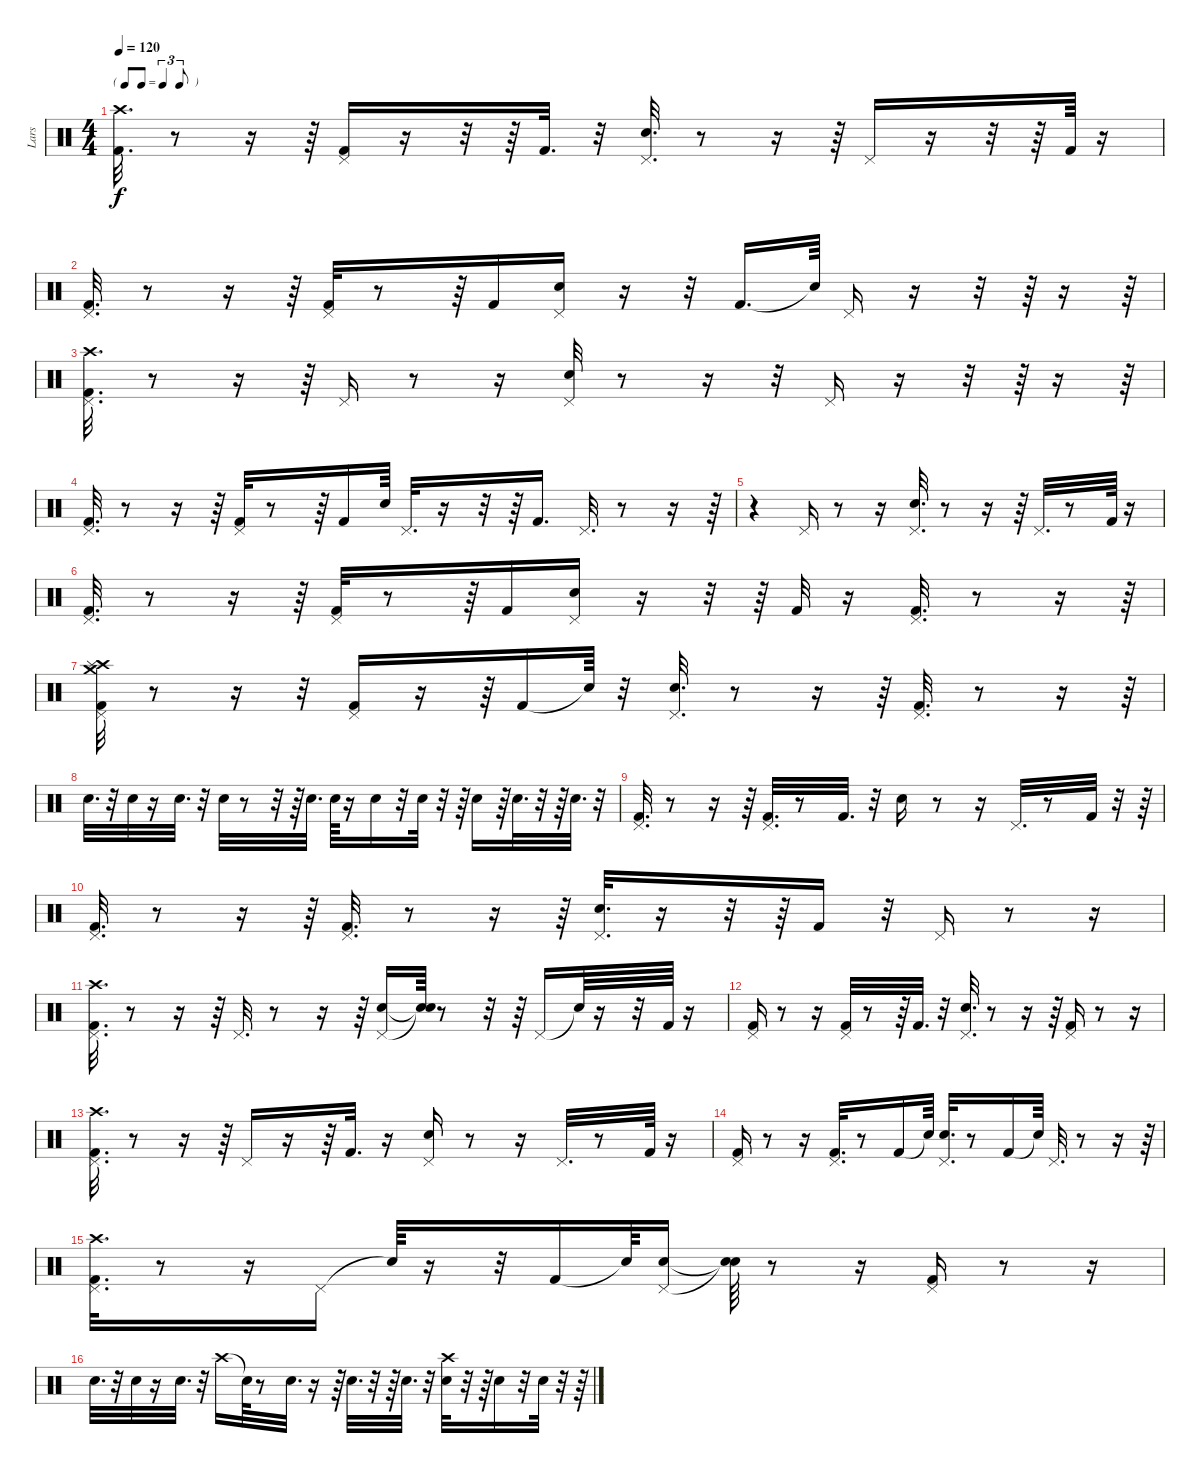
\track ("Lars" "Lars") {instrument percussion}
\staff {score}
\articulation defaults
\ts (4 4)
\tf triplet8th
\tempo 120
\clef neutral
\ks c
("Crash high (hit)" "Kick (hit) 2").32{d dy f} r.8 r.16 r.64 ("Kick (hit) 2" "Pedal Hi-Hat (hit)").16 r.16 r.32 r.64 "Kick (hit) 2".32{d} r.32 ("Pedal Hi-Hat (hit)" "Electric Snare (hit)").32{d} r.8 r.16 r.64 "Pedal Hi-Hat (hit)".16 r.16 r.32 r.64 "Kick (hit) 2".64 r.16 |
("Kick (hit) 2" "Pedal Hi-Hat (hit)").32{d} r.8 r.16 r.64 ("Pedal Hi-Hat (hit)" "Kick (hit) 2").32 r.8 r.64 "Kick (hit) 2".16 ("Pedal Hi-Hat (hit)" "Electric Snare (hit)").16 r.16 r.32 "Kick (hit) 2".16{d} "Snare (hit)"{t}.64 "Pedal Hi-Hat (hit)".16 r.16 r.32 r.64 r.16 r.64 |
("Kick (hit) 2" "Pedal Hi-Hat (hit)" "Crash high (hit)").32{d} r.8 r.16 r.64 "Pedal Hi-Hat (hit)".16 r.8 r.16 ("Pedal Hi-Hat (hit)" "Electric Snare (hit)").32 r.8 r.16 r.32 "Pedal Hi-Hat (hit)".16 r.16 r.32 r.64 r.16 r.64 |
("Pedal Hi-Hat (hit)" "Kick (hit) 2").32{d} r.8 r.16 r.64 ("Kick (hit) 2" "Pedal Hi-Hat (hit)").32 r.8 r.64 "Kick (hit) 2".16 "Electric Snare (hit)".64 "Pedal Hi-Hat (hit)".32{d} r.16 r.32 r.64 "Kick (hit) 2".16{d} "Pedal Hi-Hat (hit)".32{d} r.8 r.16 r.64 |
r.4 "Pedal Hi-Hat (hit)".16 r.8 r.16 ("Pedal Hi-Hat (hit)" "Electric Snare (hit)").32{d} r.8 r.16 r.64 "Pedal Hi-Hat (hit)".32{d} r.8 "Kick (hit) 2".64 r.16 |
("Pedal Hi-Hat (hit)" "Kick (hit) 2").32{d} r.8 r.16 r.64 ("Pedal Hi-Hat (hit)" "Kick (hit) 2").32 r.8 r.64 "Kick (hit) 2".16 ("Electric Snare (hit)" "Pedal Hi-Hat (hit)").16 r.16 r.32 r.64 "Kick (hit) 2".32 r.16 ("Pedal Hi-Hat (hit)" "Kick (hit) 2").32{d} r.8 r.16 r.64 |
("Crash high (hit)" "Kick (hit) 2" "Pedal Hi-Hat (hit)" "Splash (hit)" "Crash medium (hit)").32 r.8 r.16 r.32 ("Pedal Hi-Hat (hit)" "Kick (hit) 2").16 r.16 r.64 "Kick (hit) 2".16 "Snare (hit)"{t}.64 r.32 ("Pedal Hi-Hat (hit)" "Electric Snare (hit)").32{d} r.8 r.16 r.64 ("Kick (hit) 2" "Pedal Hi-Hat (hit)").32{d} r.8 r.16 r.64 |
"Snare (hit) 2".32{d} r.32 "Snare (hit) 2".32 r.16 "Snare (hit) 2".32{d} r.32 "Snare (hit) 2".32 r.8 r.32 r.64 "Electric Snare (hit)".32{d} "Electric Snare (hit)".64 r.16 "Electric Snare (hit)".16 r.32 "Electric Snare (hit)".32 r.32 r.64 "Electric Snare (hit)".16 r.64 "Electric Snare (hit)".32{d} r.32 r.64 "Electric Snare (hit)".32{d} r.32 |
("Kick (hit) 2" "Pedal Hi-Hat (hit)").32{d} r.8 r.16 r.64 ("Kick (hit) 2" "Pedal Hi-Hat (hit)").32{d} r.8 "Kick (hit) 2".32{d} r.32 "Electric Snare (hit)".16 r.8 r.16 "Pedal Hi-Hat (hit)".32{d} r.8 "Kick (hit) 2".32 r.32 r.64 |
("Kick (hit) 2" "Pedal Hi-Hat (hit)").32{d} r.8 r.16 r.64 ("Kick (hit) 2" "Pedal Hi-Hat (hit)").32{d} r.8 r.16 r.64 ("Electric Snare (hit)" "Pedal Hi-Hat (hit)").32{d} r.16 r.32 r.64 "Kick (hit) 2".16 r.32 "Pedal Hi-Hat (hit)".16 r.8 r.16 |
("Kick (hit) 2" "Pedal Hi-Hat (hit)" "Crash high (hit)").32{d} r.8 r.16 r.64 "Pedal Hi-Hat (hit)".32{d} r.8 r.16 r.64 ("Pedal Hi-Hat (hit)" "Electric Snare (hit)").16 ("Snare (hit)"{t} "Snare (hit)"{t}).64 r.8 r.32 r.64 "Pedal Hi-Hat (hit)".16 "Snare (hit)"{t}.64 r.16 r.32 "Kick (hit) 2".64 r.16 |
("Kick (hit) 2" "Pedal Hi-Hat (hit)").16 r.8 r.16 ("Kick (hit) 2" "Pedal Hi-Hat (hit)").32 r.8 r.64 "Kick (hit) 2".32{d} r.32 ("Pedal Hi-Hat (hit)" "Electric Snare (hit)").32{d} r.8 r.16 r.64 ("Kick (hit) 2" "Pedal Hi-Hat (hit)").16 r.8 r.16 |
("Crash high (hit)" "Pedal Hi-Hat (hit)" "Kick (hit) 2").32{d} r.8 r.16 r.64 "Pedal Hi-Hat (hit)".16 r.16 r.64 "Kick (hit) 2".32{d} r.16 ("Pedal Hi-Hat (hit)" "Electric Snare (hit)").16 r.8 r.16 "Pedal Hi-Hat (hit)".32{d} r.8 "Kick (hit) 2".64 r.16 |
("Kick (hit) 2" "Pedal Hi-Hat (hit)").16 r.8 r.16 ("Kick (hit) 2" "Pedal Hi-Hat (hit)").32{d} r.8 "Kick (hit) 2".16 "Snare (hit)"{t}.64 ("Pedal Hi-Hat (hit)" "Electric Snare (hit)").32{d} r.8 "Kick (hit) 2".16 "Snare (hit)"{t}.64 "Pedal Hi-Hat (hit)".32{d} r.8 r.16 r.64 |
("Kick (hit) 2" "Crash high (hit)" "Pedal Hi-Hat (hit)").32{d} r.8 r.16 "Pedal Hi-Hat (hit)".16 "Snare (hit)"{t}.64 r.16 r.32 "Kick (hit) 2".16 "Snare (hit)"{t}.64 ("Pedal Hi-Hat (hit)" "Electric Snare (hit)").16 ("Snare (hit)"{t} "Snare (hit)"{t}).64 r.8 r.16 ("Pedal Hi-Hat (hit)" "Kick (hit) 2").16 r.8 r.16 |
"Electric Snare (hit)".32{d} r.32 "Electric Snare (hit)".32 r.16 "Electric Snare (hit)".32{d} r.32 "Crash high (hit)".16 "Snare (hit)"{t}.64 r.8 "Electric Snare (hit)".32{d} r.16 r.64 "Electric Snare (hit)".32{d} r.32 r.64 "Electric Snare (hit)".32{d} r.32 ("Electric Snare (hit)" "Crash high (hit)").32 r.32 r.64 "Electric Snare (hit)".16 r.32 "Electric Snare (hit)".32 r.32 r.64
